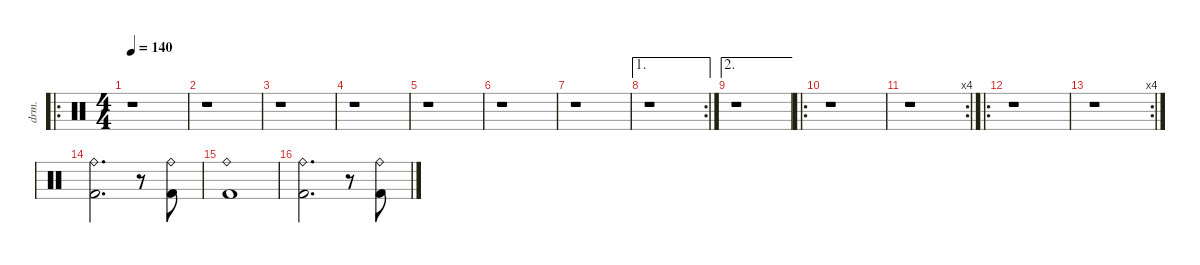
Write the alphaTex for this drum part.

\defaultSystemsLayout 4
\hideDynamics
\bracketExtendMode nobrackets
\otherSystemsTrackNameOrientation horizontal
\track ("Drums" "drm.") {defaultSystemsLayout 4 instrument percussion}
\staff {score}
\articulation defaults
\ro
\ts (4 4)
\beaming (8 2 2 2 2)
\tempo 140
\clef neutral
\ks c
r.1{dy ppp beam Down} |
r.1{beam Down} |
r.1{beam Down} |
r.1{beam Down} |
r.1{beam Down} |
r.1{beam Down} |
r.1{beam Down} |
\ae 1
\rc 2
r.1{beam Down} |
\ae 2
r.1{beam Down} |
\ro
r.1{beam Down} |
\rc 4
r.1{beam Down} |
\ro
r.1{beam Down} |
\rc 4
r.1{beam Down} |
("Ride (bell)" "Kick (hit) 2").2{d beam Down} r.8{beam Down} ("Ride (bell)" "Kick (hit) 2").8{beam Down} |
("Ride (bell)" "Kick (hit) 2").1{beam Down} |
("Ride (bell)" "Kick (hit) 2").2{d beam Down} r.8{beam Down} ("Ride (bell)" "Kick (hit) 2").8{beam Down}
